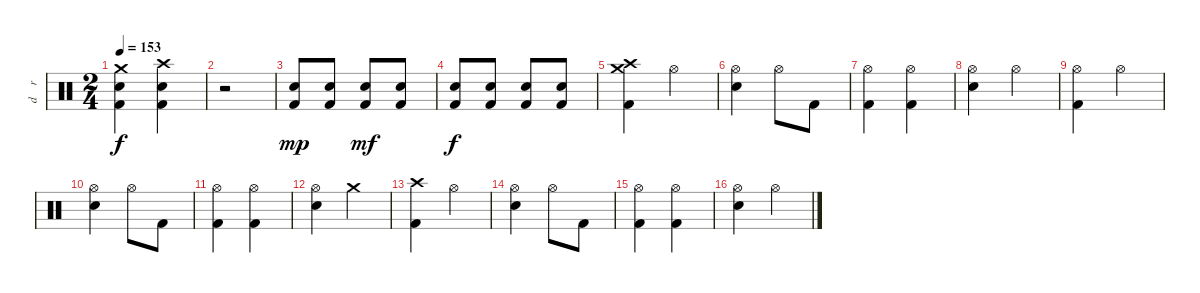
\track ("d    r     u    m    s" "d    r    ") {instrument percussion}
\staff {score}
\articulation defaults
\ts (2 4)
\tempo 153
\clef neutral
\ks c
("Crash medium (hit)" "Electric Snare (hit)" "Kick (hit) 2").4{dy f} ("Crash high (hit)" "Electric Snare (hit)" "Kick (hit) 2").4 |
r.2 |
("Electric Snare (hit)" "Kick (hit) 2").8{dy mp} ("Electric Snare (hit)" "Kick (hit) 2").8 ("Electric Snare (hit)" "Kick (hit) 2").8{dy mf} ("Electric Snare (hit)" "Kick (hit) 2").8 |
("Electric Snare (hit)" "Kick (hit) 2").8{dy f} ("Electric Snare (hit)" "Kick (hit) 2").8 ("Electric Snare (hit)" "Kick (hit) 2").8 ("Electric Snare (hit)" "Kick (hit) 2").8 |
("Crash high (hit)" "Crash medium (hit)" "Kick (hit) 2").4 "Hi-Hat (open)".4 |
("Hi-Hat (open)" "Electric Snare (hit)").4 "Hi-Hat (open)".8 "Kick (hit) 2".8 |
("Hi-Hat (open)" "Kick (hit) 2").4 ("Hi-Hat (open)" "Kick (hit) 2").4 |
("Hi-Hat (open)" "Electric Snare (hit)").4 "Hi-Hat (open)".4 |
("Hi-Hat (open)" "Kick (hit) 2").4 "Hi-Hat (open)".4 |
("Hi-Hat (open)" "Electric Snare (hit)").4 "Hi-Hat (open)".8 "Kick (hit) 2".8 |
("Hi-Hat (open)" "Kick (hit) 2").4 ("Hi-Hat (open)" "Kick (hit) 2").4 |
("Hi-Hat (open)" "Electric Snare (hit)").4 "Crash medium (hit)".4 |
("Crash high (hit)" "Kick (hit) 2").4 "Hi-Hat (open)".4 |
("Hi-Hat (open)" "Electric Snare (hit)").4 "Hi-Hat (open)".8 "Kick (hit) 2".8 |
("Hi-Hat (open)" "Kick (hit) 2").4 ("Hi-Hat (open)" "Kick (hit) 2").4 |
("Hi-Hat (open)" "Electric Snare (hit)").4 "Hi-Hat (open)".4
